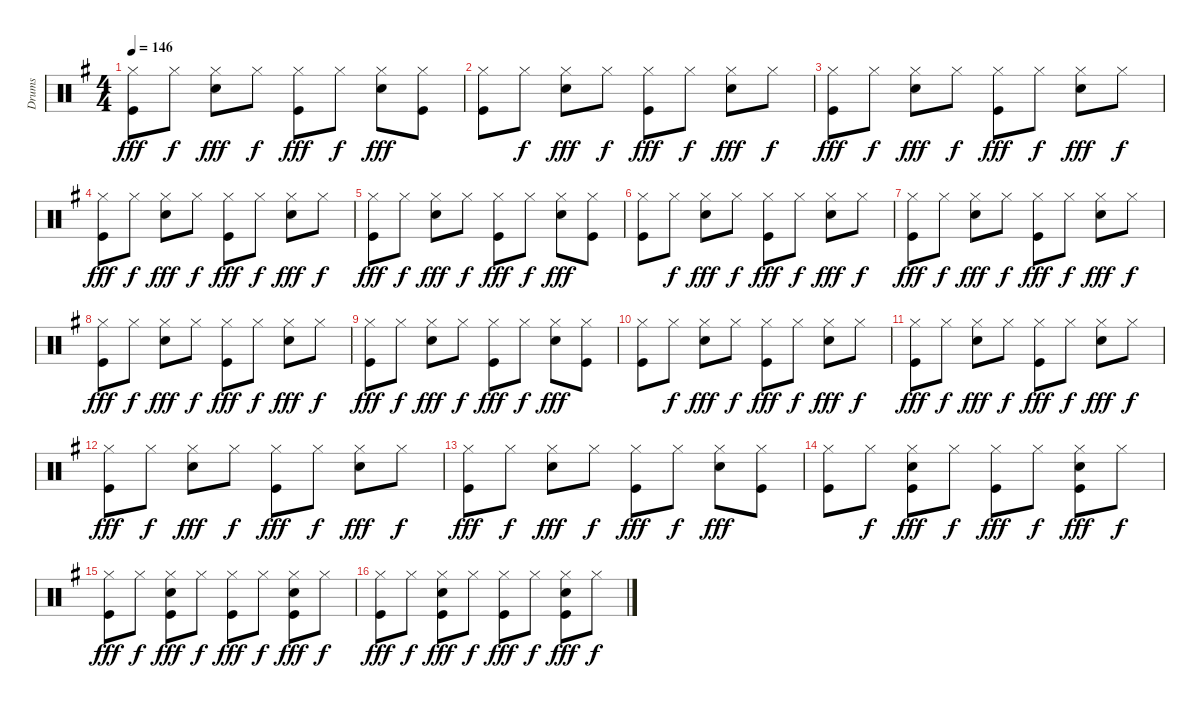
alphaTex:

\track ("Drums" "Drums") {instrument percussion}
\staff {score}
\articulation defaults
\ts (4 4)
\tempo 146
\clef neutral
\ks g
("Hi-Hat (closed)" "Kick (hit)").8{dy fff} "Hi-Hat (closed)".8{dy f} ("Hi-Hat (closed)" "Snare (hit) 2").8{dy fff} "Hi-Hat (closed)".8{dy f} ("Hi-Hat (closed)" "Kick (hit)").8{dy fff} "Hi-Hat (closed)".8{dy f} ("Hi-Hat (closed)" "Snare (hit) 2").8{dy fff} ("Hi-Hat (closed)" "Kick (hit)").8 |
("Hi-Hat (closed)" "Kick (hit)").8 "Hi-Hat (closed)".8{dy f} ("Hi-Hat (closed)" "Snare (hit) 2").8{dy fff} "Hi-Hat (closed)".8{dy f} ("Hi-Hat (closed)" "Kick (hit)").8{dy fff} "Hi-Hat (closed)".8{dy f} ("Hi-Hat (closed)" "Snare (hit) 2").8{dy fff} "Hi-Hat (closed)".8{dy f} |
("Hi-Hat (closed)" "Kick (hit)").8{dy fff} "Hi-Hat (closed)".8{dy f} ("Hi-Hat (closed)" "Snare (hit) 2").8{dy fff} "Hi-Hat (closed)".8{dy f} ("Hi-Hat (closed)" "Kick (hit)").8{dy fff} "Hi-Hat (closed)".8{dy f} ("Hi-Hat (closed)" "Snare (hit) 2").8{dy fff} "Hi-Hat (closed)".8{dy f} |
("Hi-Hat (closed)" "Kick (hit)").8{dy fff} "Hi-Hat (closed)".8{dy f} ("Hi-Hat (closed)" "Snare (hit) 2").8{dy fff} "Hi-Hat (closed)".8{dy f} ("Hi-Hat (closed)" "Kick (hit)").8{dy fff} "Hi-Hat (closed)".8{dy f} ("Hi-Hat (closed)" "Snare (hit) 2").8{dy fff} "Hi-Hat (closed)".8{dy f} |
("Hi-Hat (closed)" "Kick (hit)").8{dy fff} "Hi-Hat (closed)".8{dy f} ("Hi-Hat (closed)" "Snare (hit) 2").8{dy fff} "Hi-Hat (closed)".8{dy f} ("Hi-Hat (closed)" "Kick (hit)").8{dy fff} "Hi-Hat (closed)".8{dy f} ("Hi-Hat (closed)" "Snare (hit) 2").8{dy fff} ("Hi-Hat (closed)" "Kick (hit)").8 |
("Hi-Hat (closed)" "Kick (hit)").8 "Hi-Hat (closed)".8{dy f} ("Hi-Hat (closed)" "Snare (hit) 2").8{dy fff} "Hi-Hat (closed)".8{dy f} ("Hi-Hat (closed)" "Kick (hit)").8{dy fff} "Hi-Hat (closed)".8{dy f} ("Hi-Hat (closed)" "Snare (hit) 2").8{dy fff} "Hi-Hat (closed)".8{dy f} |
("Hi-Hat (closed)" "Kick (hit)").8{dy fff} "Hi-Hat (closed)".8{dy f} ("Hi-Hat (closed)" "Snare (hit) 2").8{dy fff} "Hi-Hat (closed)".8{dy f} ("Hi-Hat (closed)" "Kick (hit)").8{dy fff} "Hi-Hat (closed)".8{dy f} ("Hi-Hat (closed)" "Snare (hit) 2").8{dy fff} "Hi-Hat (closed)".8{dy f} |
("Hi-Hat (closed)" "Kick (hit)").8{dy fff} "Hi-Hat (closed)".8{dy f} ("Hi-Hat (closed)" "Snare (hit) 2").8{dy fff} "Hi-Hat (closed)".8{dy f} ("Hi-Hat (closed)" "Kick (hit)").8{dy fff} "Hi-Hat (closed)".8{dy f} ("Hi-Hat (closed)" "Snare (hit) 2").8{dy fff} "Hi-Hat (closed)".8{dy f} |
("Hi-Hat (closed)" "Kick (hit)").8{dy fff} "Hi-Hat (closed)".8{dy f} ("Hi-Hat (closed)" "Snare (hit) 2").8{dy fff} "Hi-Hat (closed)".8{dy f} ("Hi-Hat (closed)" "Kick (hit)").8{dy fff} "Hi-Hat (closed)".8{dy f} ("Hi-Hat (closed)" "Snare (hit) 2").8{dy fff} ("Hi-Hat (closed)" "Kick (hit)").8 |
("Hi-Hat (closed)" "Kick (hit)").8 "Hi-Hat (closed)".8{dy f} ("Hi-Hat (closed)" "Snare (hit) 2").8{dy fff} "Hi-Hat (closed)".8{dy f} ("Hi-Hat (closed)" "Kick (hit)").8{dy fff} "Hi-Hat (closed)".8{dy f} ("Hi-Hat (closed)" "Snare (hit) 2").8{dy fff} "Hi-Hat (closed)".8{dy f} |
("Hi-Hat (closed)" "Kick (hit)").8{dy fff} "Hi-Hat (closed)".8{dy f} ("Hi-Hat (closed)" "Snare (hit) 2").8{dy fff} "Hi-Hat (closed)".8{dy f} ("Hi-Hat (closed)" "Kick (hit)").8{dy fff} "Hi-Hat (closed)".8{dy f} ("Hi-Hat (closed)" "Snare (hit) 2").8{dy fff} "Hi-Hat (closed)".8{dy f} |
("Hi-Hat (closed)" "Kick (hit)").8{dy fff} "Hi-Hat (closed)".8{dy f} ("Hi-Hat (closed)" "Snare (hit) 2").8{dy fff} "Hi-Hat (closed)".8{dy f} ("Hi-Hat (closed)" "Kick (hit)").8{dy fff} "Hi-Hat (closed)".8{dy f} ("Hi-Hat (closed)" "Snare (hit) 2").8{dy fff} "Hi-Hat (closed)".8{dy f} |
("Hi-Hat (closed)" "Kick (hit)").8{dy fff} "Hi-Hat (closed)".8{dy f} ("Hi-Hat (closed)" "Snare (hit) 2").8{dy fff} "Hi-Hat (closed)".8{dy f} ("Hi-Hat (closed)" "Kick (hit)").8{dy fff} "Hi-Hat (closed)".8{dy f} ("Hi-Hat (closed)" "Snare (hit) 2").8{dy fff} ("Hi-Hat (closed)" "Kick (hit)").8 |
("Hi-Hat (closed)" "Kick (hit)").8 "Hi-Hat (closed)".8{dy f} ("Hi-Hat (closed)" "Snare (hit) 2" "Kick (hit)").8{dy fff} "Hi-Hat (closed)".8{dy f} ("Hi-Hat (closed)" "Kick (hit)").8{dy fff} "Hi-Hat (closed)".8{dy f} ("Hi-Hat (closed)" "Snare (hit) 2" "Kick (hit)").8{dy fff} "Hi-Hat (closed)".8{dy f} |
("Hi-Hat (closed)" "Kick (hit)").8{dy fff} "Hi-Hat (closed)".8{dy f} ("Hi-Hat (closed)" "Snare (hit) 2" "Kick (hit)").8{dy fff} "Hi-Hat (closed)".8{dy f} ("Hi-Hat (closed)" "Kick (hit)").8{dy fff} "Hi-Hat (closed)".8{dy f} ("Hi-Hat (closed)" "Snare (hit) 2" "Kick (hit)").8{dy fff} "Hi-Hat (closed)".8{dy f} |
("Hi-Hat (closed)" "Kick (hit)").8{dy fff} "Hi-Hat (closed)".8{dy f} ("Hi-Hat (closed)" "Snare (hit) 2" "Kick (hit)").8{dy fff} "Hi-Hat (closed)".8{dy f} ("Hi-Hat (closed)" "Kick (hit)").8{dy fff} "Hi-Hat (closed)".8{dy f} ("Hi-Hat (closed)" "Snare (hit) 2" "Kick (hit)").8{dy fff} "Hi-Hat (closed)".8{dy f}
